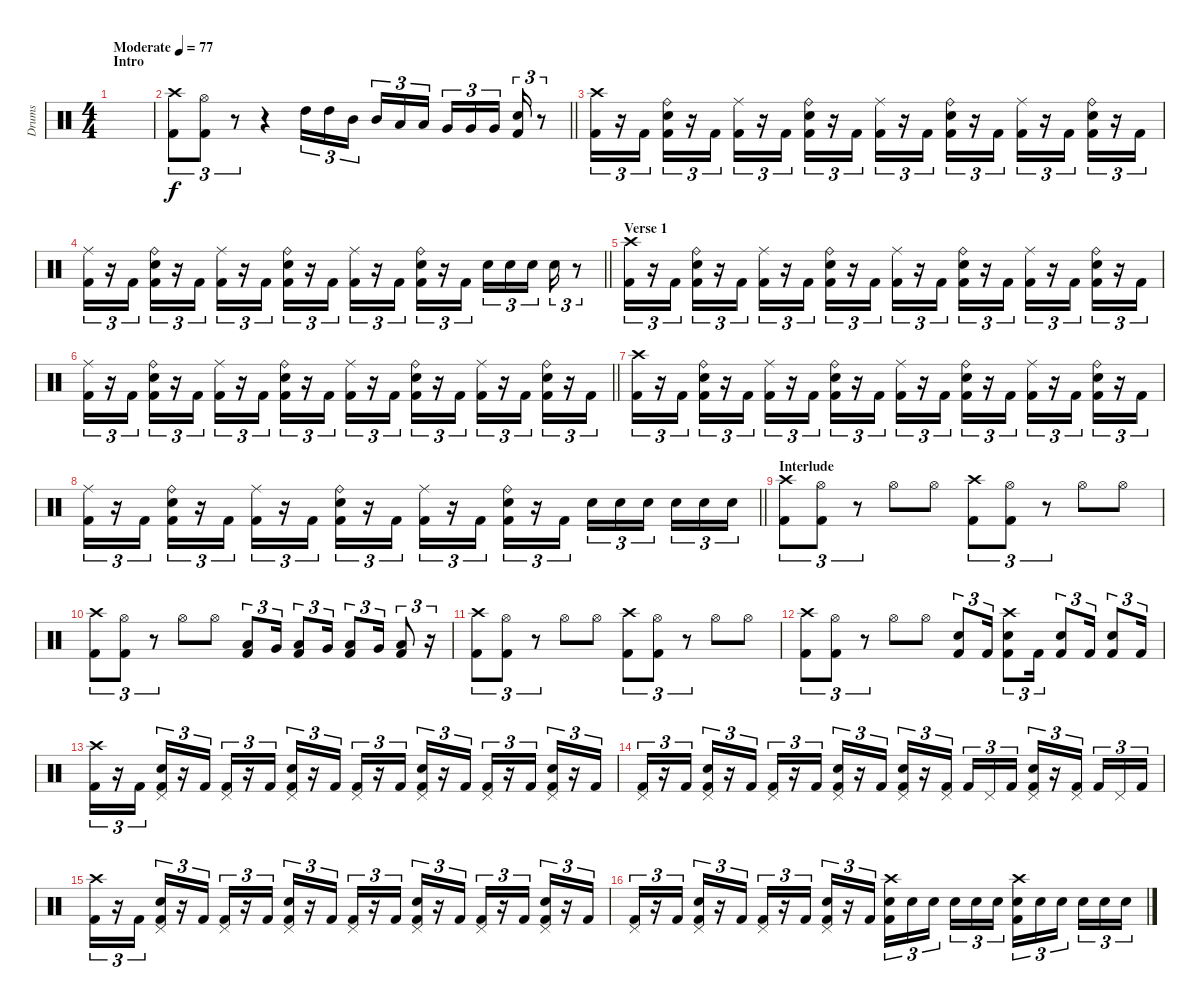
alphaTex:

\track ("Drums" "Drums") {instrument percussion}
\staff {score}
\articulation defaults
\ts (4 4)
\section ("" "Intro")
\tempo (77 "Moderate")
\clef neutral
\ks c
|
\barLineRight lightlight
("Crash high (hit)" "Kick (hit) 2").8{tu (3 2)} ("Hi-Hat (open)" "Kick (hit) 2").8{tu (3 2)} r.8{tu (3 2)} r.4 "High Tom (hit)".16{tu (3 2)} "High Tom (hit)".16{tu (3 2)} "Mid Tom (hit)".16{tu (3 2) beam splitsecondary} "Mid Tom (hit)".16{tu (3 2)} "Low Tom (hit)".16{tu (3 2)} "Low Tom (hit)".16{tu (3 2)} "Very Low Tom (hit)".16{tu (3 2)} "Very Low Tom (hit)".16{tu (3 2)} "Very Low Tom (hit)".16{tu (3 2) beam splitsecondary} ("Snare (hit) 2" "Kick (hit) 2").16{tu (3 2)} r.8{tu (3 2)} |
("Crash high (hit)" "Kick (hit) 2").16{tu (3 2)} r.16{tu (3 2)} "Kick (hit) 2".16{tu (3 2)} ("Ride (bell)" "Snare (hit) 2" "Kick (hit) 2").16{tu (3 2)} r.16{tu (3 2)} "Kick (hit) 2".16{tu (3 2)} ("Ride (middle)" "Kick (hit) 2").16{tu (3 2)} r.16{tu (3 2)} "Kick (hit) 2".16{tu (3 2)} ("Ride (bell)" "Snare (hit) 2" "Kick (hit) 2").16{tu (3 2)} r.16{tu (3 2)} "Kick (hit) 2".16{tu (3 2)} ("Ride (middle)" "Kick (hit) 2").16{tu (3 2)} r.16{tu (3 2)} "Kick (hit) 2".16{tu (3 2)} ("Ride (bell)" "Snare (hit) 2" "Kick (hit) 2").16{tu (3 2)} r.16{tu (3 2)} "Kick (hit) 2".16{tu (3 2)} ("Ride (middle)" "Kick (hit) 2").16{tu (3 2)} r.16{tu (3 2)} "Kick (hit) 2".16{tu (3 2)} ("Ride (bell)" "Snare (hit) 2" "Kick (hit) 2").16{tu (3 2)} r.16{tu (3 2)} "Kick (hit) 2".16{tu (3 2)} |
\barLineRight lightlight
("Ride (middle)" "Kick (hit) 2").16{tu (3 2)} r.16{tu (3 2)} "Kick (hit) 2".16{tu (3 2)} ("Ride (bell)" "Snare (hit) 2" "Kick (hit) 2").16{tu (3 2)} r.16{tu (3 2)} "Kick (hit) 2".16{tu (3 2)} ("Ride (middle)" "Kick (hit) 2").16{tu (3 2)} r.16{tu (3 2)} "Kick (hit) 2".16{tu (3 2)} ("Ride (bell)" "Snare (hit) 2" "Kick (hit) 2").16{tu (3 2)} r.16{tu (3 2)} "Kick (hit) 2".16{tu (3 2)} ("Ride (middle)" "Kick (hit) 2").16{tu (3 2)} r.16{tu (3 2)} "Kick (hit) 2".16{tu (3 2)} ("Ride (bell)" "Snare (hit) 2" "Kick (hit) 2").16{tu (3 2)} r.16{tu (3 2)} "Kick (hit) 2".16{tu (3 2)} "Snare (hit) 2".16{tu (3 2)} "Snare (hit) 2".16{tu (3 2)} "Snare (hit) 2".16{tu (3 2) beam splitsecondary} "Snare (hit) 2".16{tu (3 2)} r.8{tu (3 2)} |
\section ("" "Verse 1")
("Crash high (hit)" "Kick (hit) 2").16{tu (3 2)} r.16{tu (3 2)} "Kick (hit) 2".16{tu (3 2)} ("Ride (bell)" "Snare (hit) 2" "Kick (hit) 2").16{tu (3 2)} r.16{tu (3 2)} "Kick (hit) 2".16{tu (3 2)} ("Ride (middle)" "Kick (hit) 2").16{tu (3 2)} r.16{tu (3 2)} "Kick (hit) 2".16{tu (3 2)} ("Ride (bell)" "Snare (hit) 2" "Kick (hit) 2").16{tu (3 2)} r.16{tu (3 2)} "Kick (hit) 2".16{tu (3 2)} ("Ride (middle)" "Kick (hit) 2").16{tu (3 2)} r.16{tu (3 2)} "Kick (hit) 2".16{tu (3 2)} ("Ride (bell)" "Snare (hit) 2" "Kick (hit) 2").16{tu (3 2)} r.16{tu (3 2)} "Kick (hit) 2".16{tu (3 2)} ("Ride (middle)" "Kick (hit) 2").16{tu (3 2)} r.16{tu (3 2)} "Kick (hit) 2".16{tu (3 2)} ("Ride (bell)" "Snare (hit) 2" "Kick (hit) 2").16{tu (3 2)} r.16{tu (3 2)} "Kick (hit) 2".16{tu (3 2)} |
\barLineRight lightlight
("Ride (middle)" "Kick (hit) 2").16{tu (3 2)} r.16{tu (3 2)} "Kick (hit) 2".16{tu (3 2)} ("Ride (bell)" "Snare (hit) 2" "Kick (hit) 2").16{tu (3 2)} r.16{tu (3 2)} "Kick (hit) 2".16{tu (3 2)} ("Ride (middle)" "Kick (hit) 2").16{tu (3 2)} r.16{tu (3 2)} "Kick (hit) 2".16{tu (3 2)} ("Ride (bell)" "Snare (hit) 2" "Kick (hit) 2").16{tu (3 2)} r.16{tu (3 2)} "Kick (hit) 2".16{tu (3 2)} ("Ride (middle)" "Kick (hit) 2").16{tu (3 2)} r.16{tu (3 2)} "Kick (hit) 2".16{tu (3 2)} ("Ride (bell)" "Snare (hit) 2" "Kick (hit) 2").16{tu (3 2)} r.16{tu (3 2)} "Kick (hit) 2".16{tu (3 2)} ("Ride (middle)" "Kick (hit) 2").16{tu (3 2)} r.16{tu (3 2)} "Kick (hit) 2".16{tu (3 2)} ("Ride (bell)" "Snare (hit) 2" "Kick (hit) 2").16{tu (3 2)} r.16{tu (3 2)} "Kick (hit) 2".16{tu (3 2)} |
("Crash high (hit)" "Kick (hit) 2").16{tu (3 2)} r.16{tu (3 2)} "Kick (hit) 2".16{tu (3 2)} ("Ride (bell)" "Snare (hit) 2" "Kick (hit) 2").16{tu (3 2)} r.16{tu (3 2)} "Kick (hit) 2".16{tu (3 2)} ("Ride (middle)" "Kick (hit) 2").16{tu (3 2)} r.16{tu (3 2)} "Kick (hit) 2".16{tu (3 2)} ("Ride (bell)" "Snare (hit) 2" "Kick (hit) 2").16{tu (3 2)} r.16{tu (3 2)} "Kick (hit) 2".16{tu (3 2)} ("Ride (middle)" "Kick (hit) 2").16{tu (3 2)} r.16{tu (3 2)} "Kick (hit) 2".16{tu (3 2)} ("Ride (bell)" "Snare (hit) 2" "Kick (hit) 2").16{tu (3 2)} r.16{tu (3 2)} "Kick (hit) 2".16{tu (3 2)} ("Ride (middle)" "Kick (hit) 2").16{tu (3 2)} r.16{tu (3 2)} "Kick (hit) 2".16{tu (3 2)} ("Ride (bell)" "Snare (hit) 2" "Kick (hit) 2").16{tu (3 2)} r.16{tu (3 2)} "Kick (hit) 2".16{tu (3 2)} |
\barLineRight lightlight
("Ride (middle)" "Kick (hit) 2").16{tu (3 2)} r.16{tu (3 2)} "Kick (hit) 2".16{tu (3 2)} ("Ride (bell)" "Snare (hit) 2" "Kick (hit) 2").16{tu (3 2)} r.16{tu (3 2)} "Kick (hit) 2".16{tu (3 2)} ("Ride (middle)" "Kick (hit) 2").16{tu (3 2)} r.16{tu (3 2)} "Kick (hit) 2".16{tu (3 2)} ("Ride (bell)" "Snare (hit) 2" "Kick (hit) 2").16{tu (3 2)} r.16{tu (3 2)} "Kick (hit) 2".16{tu (3 2)} ("Ride (middle)" "Kick (hit) 2").16{tu (3 2)} r.16{tu (3 2)} "Kick (hit) 2".16{tu (3 2)} ("Ride (bell)" "Snare (hit) 2" "Kick (hit) 2").16{tu (3 2)} r.16{tu (3 2)} "Kick (hit) 2".16{tu (3 2)} "Snare (hit) 2".16{tu (3 2)} "Snare (hit) 2".16{tu (3 2)} "Snare (hit) 2".16{tu (3 2) beam splitsecondary} "Snare (hit) 2".16{tu (3 2)} "Snare (hit) 2".16{tu (3 2)} "Snare (hit) 2".16{tu (3 2)} |
\section ("" "Interlude")
("Crash high (hit)" "Kick (hit) 2").8{tu (3 2)} ("Hi-Hat (open)" "Kick (hit) 2").8{tu (3 2)} r.8{tu (3 2)} "Hi-Hat (open)".8 "Hi-Hat (open)".8 ("Crash high (hit)" "Kick (hit) 2").8{tu (3 2)} ("Hi-Hat (open)" "Kick (hit) 2").8{tu (3 2)} r.8{tu (3 2)} "Hi-Hat (open)".8 "Hi-Hat (open)".8 |
("Crash high (hit)" "Kick (hit) 2").8{tu (3 2)} ("Hi-Hat (open)" "Kick (hit) 2").8{tu (3 2)} r.8{tu (3 2)} "Hi-Hat (open)".8 "Hi-Hat (open)".8 ("Low Tom (hit)" "Kick (hit) 2").8{tu (3 2)} "Very Low Tom (hit)".16{tu (3 2)} ("Low Tom (hit)" "Kick (hit) 2").8{tu (3 2)} "Very Low Tom (hit)".16{tu (3 2)} ("Low Tom (hit)" "Kick (hit) 2").8{tu (3 2)} "Very Low Tom (hit)".16{tu (3 2)} ("Low Tom (hit)" "Kick (hit) 2").8{tu (3 2)} r.16{tu (3 2)} |
("Crash high (hit)" "Kick (hit) 2").8{tu (3 2)} ("Hi-Hat (open)" "Kick (hit) 2").8{tu (3 2)} r.8{tu (3 2)} "Hi-Hat (open)".8 "Hi-Hat (open)".8 ("Crash high (hit)" "Kick (hit) 2").8{tu (3 2)} ("Hi-Hat (open)" "Kick (hit) 2").8{tu (3 2)} r.8{tu (3 2)} "Hi-Hat (open)".8 "Hi-Hat (open)".8 |
("Crash high (hit)" "Kick (hit) 2").8{tu (3 2)} ("Hi-Hat (open)" "Kick (hit) 2").8{tu (3 2)} r.8{tu (3 2)} "Hi-Hat (open)".8 "Hi-Hat (open)".8 ("Snare (hit) 2" "Kick (hit) 2").8{tu (3 2)} "Kick (hit) 2".16{tu (3 2)} ("Crash high (hit)" "Snare (hit) 2" "Kick (hit) 2").8{tu (3 2)} "Kick (hit) 2".16{tu (3 2)} ("Snare (hit) 2" "Kick (hit) 2").8{tu (3 2)} "Kick (hit) 2".16{tu (3 2)} ("Snare (hit) 2" "Kick (hit) 2").8{tu (3 2)} "Kick (hit) 2".16{tu (3 2)} |
("Crash high (hit)" "Kick (hit) 2").16{tu (3 2)} r.16{tu (3 2)} "Kick (hit) 2".16{tu (3 2)} ("Pedal Hi-Hat (hit)" "Snare (hit) 2" "Kick (hit) 2").16{tu (3 2)} r.16{tu (3 2)} "Kick (hit) 2".16{tu (3 2)} ("Pedal Hi-Hat (hit)" "Kick (hit) 2").16{tu (3 2)} r.16{tu (3 2)} "Kick (hit) 2".16{tu (3 2)} ("Pedal Hi-Hat (hit)" "Snare (hit) 2" "Kick (hit) 2").16{tu (3 2)} r.16{tu (3 2)} "Kick (hit) 2".16{tu (3 2)} ("Pedal Hi-Hat (hit)" "Kick (hit) 2").16{tu (3 2)} r.16{tu (3 2)} "Kick (hit) 2".16{tu (3 2)} ("Pedal Hi-Hat (hit)" "Snare (hit) 2" "Kick (hit) 2").16{tu (3 2)} r.16{tu (3 2)} "Kick (hit) 2".16{tu (3 2)} ("Pedal Hi-Hat (hit)" "Kick (hit) 2").16{tu (3 2)} r.16{tu (3 2)} "Kick (hit) 2".16{tu (3 2)} ("Pedal Hi-Hat (hit)" "Snare (hit) 2" "Kick (hit) 2").16{tu (3 2)} r.16{tu (3 2)} "Kick (hit) 2".16{tu (3 2)} |
("Pedal Hi-Hat (hit)" "Kick (hit) 2").16{tu (3 2)} r.16{tu (3 2)} "Kick (hit) 2".16{tu (3 2)} ("Pedal Hi-Hat (hit)" "Snare (hit) 2" "Kick (hit) 2").16{tu (3 2)} r.16{tu (3 2)} "Kick (hit) 2".16{tu (3 2)} ("Pedal Hi-Hat (hit)" "Kick (hit) 2").16{tu (3 2)} r.16{tu (3 2)} "Kick (hit) 2".16{tu (3 2)} ("Pedal Hi-Hat (hit)" "Snare (hit) 2" "Kick (hit) 2").16{tu (3 2)} r.16{tu (3 2)} "Kick (hit) 2".16{tu (3 2)} ("Pedal Hi-Hat (hit)" "Snare (hit) 2" "Kick (hit) 2").16{tu (3 2)} r.16{tu (3 2)} ("Pedal Hi-Hat (hit)" "Kick (hit) 2").16{tu (3 2) beam splitsecondary} "Kick (hit) 2".16{tu (3 2)} "Pedal Hi-Hat (hit)".16{tu (3 2)} "Kick (hit) 2".16{tu (3 2)} ("Pedal Hi-Hat (hit)" "Snare (hit) 2" "Kick (hit) 2").16{tu (3 2)} r.16{tu (3 2)} ("Pedal Hi-Hat (hit)" "Kick (hit) 2").16{tu (3 2) beam splitsecondary} "Kick (hit) 2".16{tu (3 2)} "Pedal Hi-Hat (hit)".16{tu (3 2)} "Kick (hit) 2".16{tu (3 2)} |
("Crash high (hit)" "Kick (hit) 2").16{tu (3 2)} r.16{tu (3 2)} "Kick (hit) 2".16{tu (3 2)} ("Pedal Hi-Hat (hit)" "Snare (hit) 2" "Kick (hit) 2").16{tu (3 2)} r.16{tu (3 2)} "Kick (hit) 2".16{tu (3 2)} ("Pedal Hi-Hat (hit)" "Kick (hit) 2").16{tu (3 2)} r.16{tu (3 2)} "Kick (hit) 2".16{tu (3 2)} ("Pedal Hi-Hat (hit)" "Snare (hit) 2" "Kick (hit) 2").16{tu (3 2)} r.16{tu (3 2)} "Kick (hit) 2".16{tu (3 2)} ("Pedal Hi-Hat (hit)" "Kick (hit) 2").16{tu (3 2)} r.16{tu (3 2)} "Kick (hit) 2".16{tu (3 2)} ("Pedal Hi-Hat (hit)" "Snare (hit) 2" "Kick (hit) 2").16{tu (3 2)} r.16{tu (3 2)} "Kick (hit) 2".16{tu (3 2)} ("Pedal Hi-Hat (hit)" "Kick (hit) 2").16{tu (3 2)} r.16{tu (3 2)} "Kick (hit) 2".16{tu (3 2)} ("Pedal Hi-Hat (hit)" "Snare (hit) 2" "Kick (hit) 2").16{tu (3 2)} r.16{tu (3 2)} "Kick (hit) 2".16{tu (3 2)} |
("Pedal Hi-Hat (hit)" "Kick (hit) 2").16{tu (3 2)} r.16{tu (3 2)} "Kick (hit) 2".16{tu (3 2)} ("Pedal Hi-Hat (hit)" "Snare (hit) 2" "Kick (hit) 2").16{tu (3 2)} r.16{tu (3 2)} "Kick (hit) 2".16{tu (3 2)} ("Pedal Hi-Hat (hit)" "Kick (hit) 2").16{tu (3 2)} r.16{tu (3 2)} "Kick (hit) 2".16{tu (3 2)} ("Pedal Hi-Hat (hit)" "Snare (hit) 2" "Kick (hit) 2").16{tu (3 2)} r.16{tu (3 2)} "Kick (hit) 2".16{tu (3 2)} ("Crash high (hit)" "Snare (hit) 2" "Kick (hit) 2").16{tu (3 2)} "Snare (hit) 2".16{tu (3 2)} "Snare (hit) 2".16{tu (3 2) beam splitsecondary} "Snare (hit) 2".16{tu (3 2)} "Snare (hit) 2".16{tu (3 2)} "Snare (hit) 2".16{tu (3 2)} ("Crash high (hit)" "Snare (hit) 2" "Kick (hit) 2").16{tu (3 2)} "Snare (hit) 2".16{tu (3 2)} "Snare (hit) 2".16{tu (3 2) beam splitsecondary} "Snare (hit) 2".16{tu (3 2)} "Snare (hit) 2".16{tu (3 2)} "Snare (hit) 2".16{tu (3 2)}
